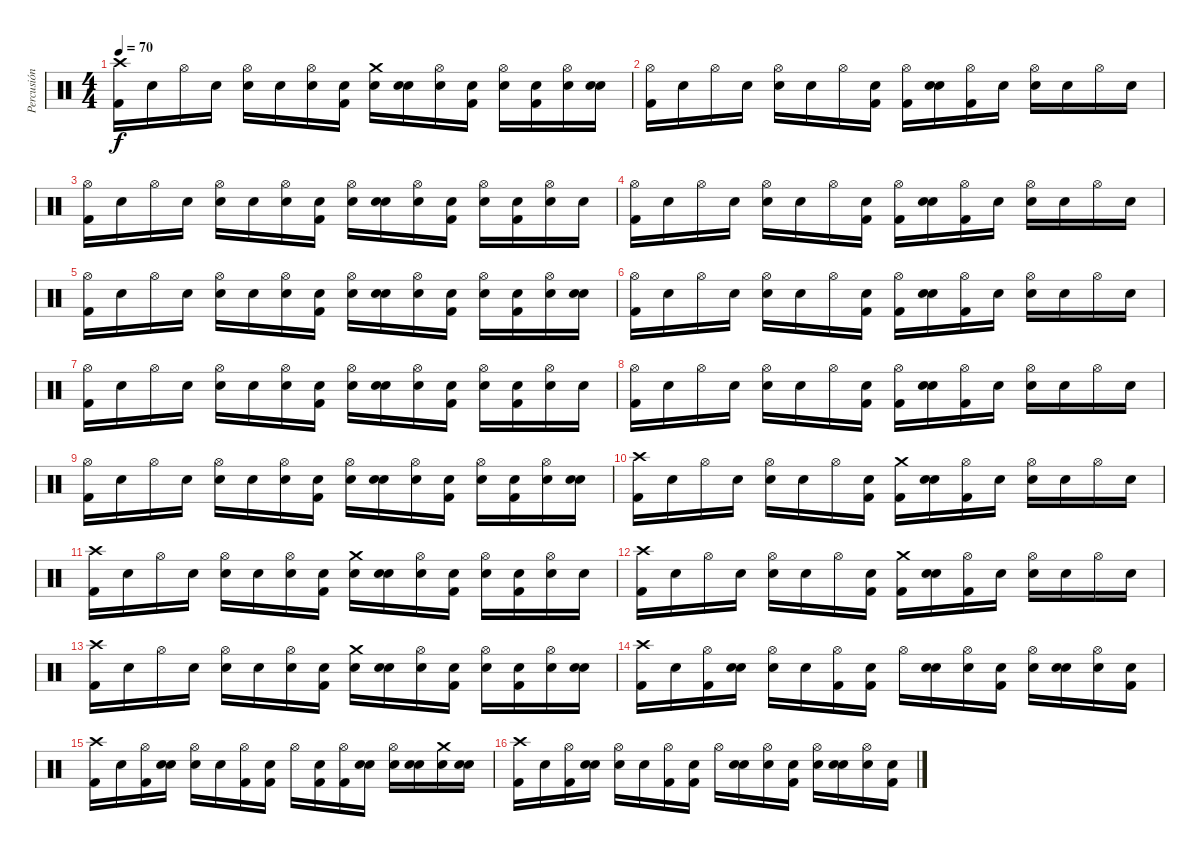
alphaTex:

\track ("Percusión" "Percusión") {instrument percussion}
\staff {score}
\articulation defaults
\ts (4 4)
\tempo 70
\clef neutral
\ks c
("Crash high (hit)" "Kick (hit) 2").16{dy f} "Snare (hit)".16 "Hi-Hat (open)".16 "Snare (hit)".16 ("Hi-Hat (open)" "Electric Snare (hit)").16 "Snare (hit)".16 ("Hi-Hat (open)" "Snare (hit)").16 ("Snare (hit)" "Kick (hit) 2").16 ("Crash medium (hit)" "Snare (hit)").16 ("Snare (hit)" "Electric Snare (hit)").16 ("Hi-Hat (open)" "Snare (hit)").16 ("Snare (hit)" "Kick (hit) 2").16 ("Hi-Hat (open)" "Electric Snare (hit)").16 ("Snare (hit)" "Kick (hit) 2").16 ("Hi-Hat (open)" "Electric Snare (hit)").16 ("Snare (hit)" "Electric Snare (hit)").16 |
("Hi-Hat (open)" "Kick (hit) 2").16 "Snare (hit)".16 "Hi-Hat (open)".16 "Snare (hit)".16 ("Hi-Hat (open)" "Electric Snare (hit)").16 "Snare (hit)".16 "Hi-Hat (open)".16 ("Snare (hit)" "Kick (hit) 2").16 ("Hi-Hat (open)" "Kick (hit) 2").16 ("Snare (hit)" "Snare (hit)").16 ("Hi-Hat (open)" "Kick (hit) 2").16 "Snare (hit)".16 ("Hi-Hat (open)" "Electric Snare (hit)").16 "Snare (hit)".16 "Hi-Hat (open)".16 "Snare (hit)".16 |
("Hi-Hat (open)" "Kick (hit) 2").16 "Snare (hit)".16 "Hi-Hat (open)".16 "Snare (hit)".16 ("Hi-Hat (open)" "Electric Snare (hit)").16 "Snare (hit)".16 ("Hi-Hat (open)" "Snare (hit)").16 ("Snare (hit)" "Kick (hit) 2").16 ("Hi-Hat (open)" "Snare (hit)").16 ("Snare (hit)" "Electric Snare (hit)").16 ("Hi-Hat (open)" "Snare (hit)").16 ("Snare (hit)" "Kick (hit) 2").16 ("Hi-Hat (open)" "Electric Snare (hit)").16 ("Snare (hit)" "Kick (hit) 2").16 ("Hi-Hat (open)" "Snare (hit)").16 "Snare (hit)".16 |
("Hi-Hat (open)" "Kick (hit) 2").16 "Snare (hit)".16 "Hi-Hat (open)".16 "Snare (hit)".16 ("Hi-Hat (open)" "Electric Snare (hit)").16 "Snare (hit)".16 "Hi-Hat (open)".16 ("Snare (hit)" "Kick (hit) 2").16 ("Hi-Hat (open)" "Kick (hit) 2").16 ("Snare (hit)" "Snare (hit)").16 ("Hi-Hat (open)" "Kick (hit) 2").16 "Snare (hit)".16 ("Hi-Hat (open)" "Electric Snare (hit)").16 "Snare (hit)".16 "Hi-Hat (open)".16 "Snare (hit)".16 |
("Hi-Hat (open)" "Kick (hit) 2").16 "Snare (hit)".16 "Hi-Hat (open)".16 "Snare (hit)".16 ("Hi-Hat (open)" "Electric Snare (hit)").16 "Snare (hit)".16 ("Hi-Hat (open)" "Snare (hit)").16 ("Snare (hit)" "Kick (hit) 2").16 ("Hi-Hat (open)" "Snare (hit)").16 ("Snare (hit)" "Electric Snare (hit)").16 ("Hi-Hat (open)" "Snare (hit)").16 ("Snare (hit)" "Kick (hit) 2").16 ("Hi-Hat (open)" "Electric Snare (hit)").16 ("Snare (hit)" "Kick (hit) 2").16 ("Hi-Hat (open)" "Electric Snare (hit)").16 ("Snare (hit)" "Electric Snare (hit)").16 |
("Hi-Hat (open)" "Kick (hit) 2").16 "Snare (hit)".16 "Hi-Hat (open)".16 "Snare (hit)".16 ("Hi-Hat (open)" "Electric Snare (hit)").16 "Snare (hit)".16 "Hi-Hat (open)".16 ("Snare (hit)" "Kick (hit) 2").16 ("Hi-Hat (open)" "Kick (hit) 2").16 ("Snare (hit)" "Snare (hit)").16 ("Hi-Hat (open)" "Kick (hit) 2").16 "Snare (hit)".16 ("Hi-Hat (open)" "Electric Snare (hit)").16 "Snare (hit)".16 "Hi-Hat (open)".16 "Snare (hit)".16 |
("Hi-Hat (open)" "Kick (hit) 2").16 "Snare (hit)".16 "Hi-Hat (open)".16 "Snare (hit)".16 ("Hi-Hat (open)" "Electric Snare (hit)").16 "Snare (hit)".16 ("Hi-Hat (open)" "Snare (hit)").16 ("Snare (hit)" "Kick (hit) 2").16 ("Hi-Hat (open)" "Snare (hit)").16 ("Snare (hit)" "Electric Snare (hit)").16 ("Hi-Hat (open)" "Snare (hit)").16 ("Snare (hit)" "Kick (hit) 2").16 ("Hi-Hat (open)" "Electric Snare (hit)").16 ("Snare (hit)" "Kick (hit) 2").16 ("Hi-Hat (open)" "Snare (hit)").16 "Snare (hit)".16 |
("Hi-Hat (open)" "Kick (hit) 2").16 "Snare (hit)".16 "Hi-Hat (open)".16 "Snare (hit)".16 ("Hi-Hat (open)" "Electric Snare (hit)").16 "Snare (hit)".16 "Hi-Hat (open)".16 ("Snare (hit)" "Kick (hit) 2").16 ("Hi-Hat (open)" "Kick (hit) 2").16 ("Snare (hit)" "Snare (hit)").16 ("Hi-Hat (open)" "Kick (hit) 2").16 "Snare (hit)".16 ("Hi-Hat (open)" "Electric Snare (hit)").16 "Snare (hit)".16 "Hi-Hat (open)".16 "Snare (hit)".16 |
("Hi-Hat (open)" "Kick (hit) 2").16 "Snare (hit)".16 "Hi-Hat (open)".16 "Snare (hit)".16 ("Hi-Hat (open)" "Electric Snare (hit)").16 "Snare (hit)".16 ("Hi-Hat (open)" "Snare (hit)").16 ("Snare (hit)" "Kick (hit) 2").16 ("Hi-Hat (open)" "Snare (hit)").16 ("Snare (hit)" "Electric Snare (hit)").16 ("Hi-Hat (open)" "Snare (hit)").16 ("Snare (hit)" "Kick (hit) 2").16 ("Hi-Hat (open)" "Electric Snare (hit)").16 ("Snare (hit)" "Kick (hit) 2").16 ("Hi-Hat (open)" "Electric Snare (hit)").16 ("Snare (hit)" "Electric Snare (hit)").16 |
("Crash high (hit)" "Kick (hit) 2").16 "Snare (hit)".16 "Hi-Hat (open)".16 "Snare (hit)".16 ("Hi-Hat (open)" "Electric Snare (hit)").16 "Snare (hit)".16 "Hi-Hat (open)".16 ("Snare (hit)" "Kick (hit) 2").16 ("Crash medium (hit)" "Kick (hit) 2").16 ("Snare (hit)" "Snare (hit)").16 ("Hi-Hat (open)" "Kick (hit) 2").16 "Snare (hit)".16 ("Hi-Hat (open)" "Electric Snare (hit)").16 "Snare (hit)".16 "Hi-Hat (open)".16 "Snare (hit)".16 |
("Crash high (hit)" "Kick (hit) 2").16 "Snare (hit)".16 "Hi-Hat (open)".16 "Snare (hit)".16 ("Hi-Hat (open)" "Electric Snare (hit)").16 "Snare (hit)".16 ("Hi-Hat (open)" "Snare (hit)").16 ("Snare (hit)" "Kick (hit) 2").16 ("Crash medium (hit)" "Snare (hit)").16 ("Snare (hit)" "Electric Snare (hit)").16 ("Hi-Hat (open)" "Snare (hit)").16 ("Snare (hit)" "Kick (hit) 2").16 ("Hi-Hat (open)" "Electric Snare (hit)").16 ("Snare (hit)" "Kick (hit) 2").16 ("Hi-Hat (open)" "Snare (hit)").16 "Snare (hit)".16 |
("Crash high (hit)" "Kick (hit) 2").16 "Snare (hit)".16 "Hi-Hat (open)".16 "Snare (hit)".16 ("Hi-Hat (open)" "Electric Snare (hit)").16 "Snare (hit)".16 "Hi-Hat (open)".16 ("Snare (hit)" "Kick (hit) 2").16 ("Crash medium (hit)" "Kick (hit) 2").16 ("Snare (hit)" "Snare (hit)").16 ("Hi-Hat (open)" "Kick (hit) 2").16 "Snare (hit)".16 ("Hi-Hat (open)" "Electric Snare (hit)").16 "Snare (hit)".16 "Hi-Hat (open)".16 "Snare (hit)".16 |
("Crash high (hit)" "Kick (hit) 2").16 "Snare (hit)".16 "Hi-Hat (open)".16 "Snare (hit)".16 ("Hi-Hat (open)" "Electric Snare (hit)").16 "Snare (hit)".16 ("Hi-Hat (open)" "Snare (hit)").16 ("Snare (hit)" "Kick (hit) 2").16 ("Crash medium (hit)" "Snare (hit)").16 ("Snare (hit)" "Electric Snare (hit)").16 ("Hi-Hat (open)" "Snare (hit)").16 ("Snare (hit)" "Kick (hit) 2").16 ("Hi-Hat (open)" "Electric Snare (hit)").16 ("Snare (hit)" "Kick (hit) 2").16 ("Hi-Hat (open)" "Electric Snare (hit)").16 ("Snare (hit)" "Electric Snare (hit)").16 |
("Crash high (hit)" "Kick (hit) 2").16 "Snare (hit)".16 ("Hi-Hat (open)" "Kick (hit) 2").16 ("Snare (hit)" "Snare (hit)").16 ("Hi-Hat (open)" "Electric Snare (hit)").16 "Snare (hit)".16 ("Hi-Hat (open)" "Kick (hit) 2").16 ("Snare (hit)" "Kick (hit) 2").16 "Hi-Hat (open)".16 ("Snare (hit)" "Electric Snare (hit)").16 ("Hi-Hat (open)" "Snare (hit)").16 ("Snare (hit)" "Kick (hit) 2").16 ("Hi-Hat (open)" "Electric Snare (hit)").16 ("Snare (hit)" "Electric Snare (hit)").16 ("Hi-Hat (open)" "Snare (hit)").16 ("Snare (hit)" "Kick (hit) 2").16 |
("Crash high (hit)" "Kick (hit) 2").16 "Snare (hit)".16 ("Hi-Hat (open)" "Kick (hit) 2").16 ("Snare (hit)" "Snare (hit)").16 ("Hi-Hat (open)" "Electric Snare (hit)").16 "Snare (hit)".16 ("Hi-Hat (open)" "Kick (hit) 2").16 ("Snare (hit)" "Kick (hit) 2").16 "Hi-Hat (open)".16 ("Snare (hit)" "Kick (hit) 2").16 ("Hi-Hat (open)" "Kick (hit) 2").16 ("Snare (hit)" "Snare (hit)").16 ("Hi-Hat (open)" "Electric Snare (hit)").16 ("Snare (hit)" "Electric Snare (hit)").16 ("Crash medium (hit)" "Electric Snare (hit)").16 ("Snare (hit)" "Electric Snare (hit)").16 |
("Crash high (hit)" "Kick (hit) 2").16 "Snare (hit)".16 ("Hi-Hat (open)" "Kick (hit) 2").16 ("Snare (hit)" "Snare (hit)").16 ("Hi-Hat (open)" "Electric Snare (hit)").16 "Snare (hit)".16 ("Hi-Hat (open)" "Kick (hit) 2").16 ("Snare (hit)" "Kick (hit) 2").16 "Hi-Hat (open)".16 ("Snare (hit)" "Electric Snare (hit)").16 ("Hi-Hat (open)" "Snare (hit)").16 ("Snare (hit)" "Kick (hit) 2").16 ("Hi-Hat (open)" "Electric Snare (hit)").16 ("Snare (hit)" "Electric Snare (hit)").16 ("Hi-Hat (open)" "Snare (hit)").16 ("Snare (hit)" "Kick (hit) 2").16
